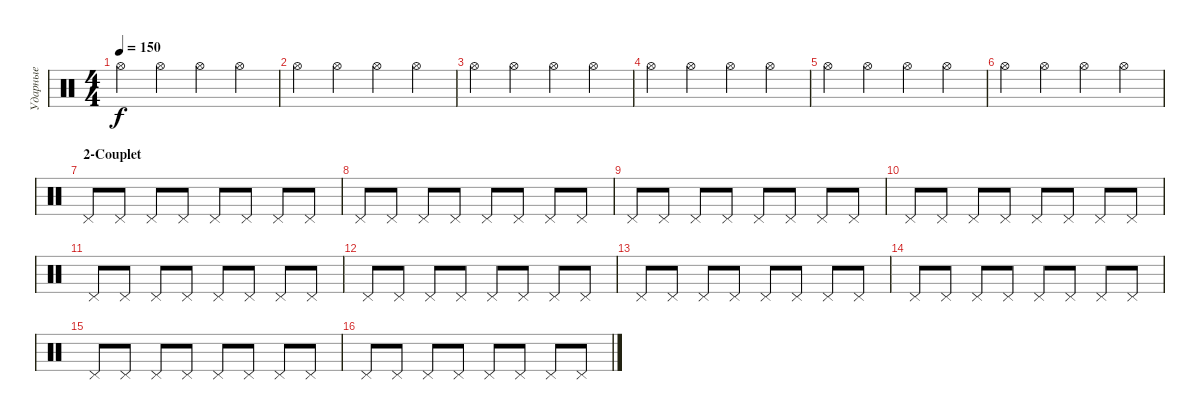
\track ("Ударные" "Ударные") {instrument percussion}
\staff {score}
\articulation defaults
\ts (4 4)
\tempo 150
\clef neutral
\ks c "Hi-Hat (open)".4{dy f} "Hi-Hat (open)".4 "Hi-Hat (open)".4 "Hi-Hat (open)".4
|
"Hi-Hat (open)".4 "Hi-Hat (open)".4 "Hi-Hat (open)".4 "Hi-Hat (open)".4 |
"Hi-Hat (open)".4 "Hi-Hat (open)".4 "Hi-Hat (open)".4 "Hi-Hat (open)".4 |
"Hi-Hat (open)".4 "Hi-Hat (open)".4 "Hi-Hat (open)".4 "Hi-Hat (open)".4 |
"Hi-Hat (open)".4 "Hi-Hat (open)".4 "Hi-Hat (open)".4 "Hi-Hat (open)".4 |
"Hi-Hat (open)".4 "Hi-Hat (open)".4 "Hi-Hat (open)".4 "Hi-Hat (open)".4 |
\section ("" "2-Couplet")
"Pedal Hi-Hat (hit)".8 "Pedal Hi-Hat (hit)".8 "Pedal Hi-Hat (hit)".8 "Pedal Hi-Hat (hit)".8 "Pedal Hi-Hat (hit)".8 "Pedal Hi-Hat (hit)".8 "Pedal Hi-Hat (hit)".8 "Pedal Hi-Hat (hit)".8 |
"Pedal Hi-Hat (hit)".8 "Pedal Hi-Hat (hit)".8 "Pedal Hi-Hat (hit)".8 "Pedal Hi-Hat (hit)".8 "Pedal Hi-Hat (hit)".8 "Pedal Hi-Hat (hit)".8 "Pedal Hi-Hat (hit)".8 "Pedal Hi-Hat (hit)".8 |
"Pedal Hi-Hat (hit)".8 "Pedal Hi-Hat (hit)".8 "Pedal Hi-Hat (hit)".8 "Pedal Hi-Hat (hit)".8 "Pedal Hi-Hat (hit)".8 "Pedal Hi-Hat (hit)".8 "Pedal Hi-Hat (hit)".8 "Pedal Hi-Hat (hit)".8 |
"Pedal Hi-Hat (hit)".8 "Pedal Hi-Hat (hit)".8 "Pedal Hi-Hat (hit)".8 "Pedal Hi-Hat (hit)".8 "Pedal Hi-Hat (hit)".8 "Pedal Hi-Hat (hit)".8 "Pedal Hi-Hat (hit)".8 "Pedal Hi-Hat (hit)".8 |
"Pedal Hi-Hat (hit)".8 "Pedal Hi-Hat (hit)".8 "Pedal Hi-Hat (hit)".8 "Pedal Hi-Hat (hit)".8 "Pedal Hi-Hat (hit)".8 "Pedal Hi-Hat (hit)".8 "Pedal Hi-Hat (hit)".8 "Pedal Hi-Hat (hit)".8 |
"Pedal Hi-Hat (hit)".8 "Pedal Hi-Hat (hit)".8 "Pedal Hi-Hat (hit)".8 "Pedal Hi-Hat (hit)".8 "Pedal Hi-Hat (hit)".8 "Pedal Hi-Hat (hit)".8 "Pedal Hi-Hat (hit)".8 "Pedal Hi-Hat (hit)".8 |
"Pedal Hi-Hat (hit)".8 "Pedal Hi-Hat (hit)".8 "Pedal Hi-Hat (hit)".8 "Pedal Hi-Hat (hit)".8 "Pedal Hi-Hat (hit)".8 "Pedal Hi-Hat (hit)".8 "Pedal Hi-Hat (hit)".8 "Pedal Hi-Hat (hit)".8 |
"Pedal Hi-Hat (hit)".8 "Pedal Hi-Hat (hit)".8 "Pedal Hi-Hat (hit)".8 "Pedal Hi-Hat (hit)".8 "Pedal Hi-Hat (hit)".8 "Pedal Hi-Hat (hit)".8 "Pedal Hi-Hat (hit)".8 "Pedal Hi-Hat (hit)".8 |
"Pedal Hi-Hat (hit)".8 "Pedal Hi-Hat (hit)".8 "Pedal Hi-Hat (hit)".8 "Pedal Hi-Hat (hit)".8 "Pedal Hi-Hat (hit)".8 "Pedal Hi-Hat (hit)".8 "Pedal Hi-Hat (hit)".8 "Pedal Hi-Hat (hit)".8 |
"Pedal Hi-Hat (hit)".8 "Pedal Hi-Hat (hit)".8 "Pedal Hi-Hat (hit)".8 "Pedal Hi-Hat (hit)".8 "Pedal Hi-Hat (hit)".8 "Pedal Hi-Hat (hit)".8 "Pedal Hi-Hat (hit)".8 "Pedal Hi-Hat (hit)".8
